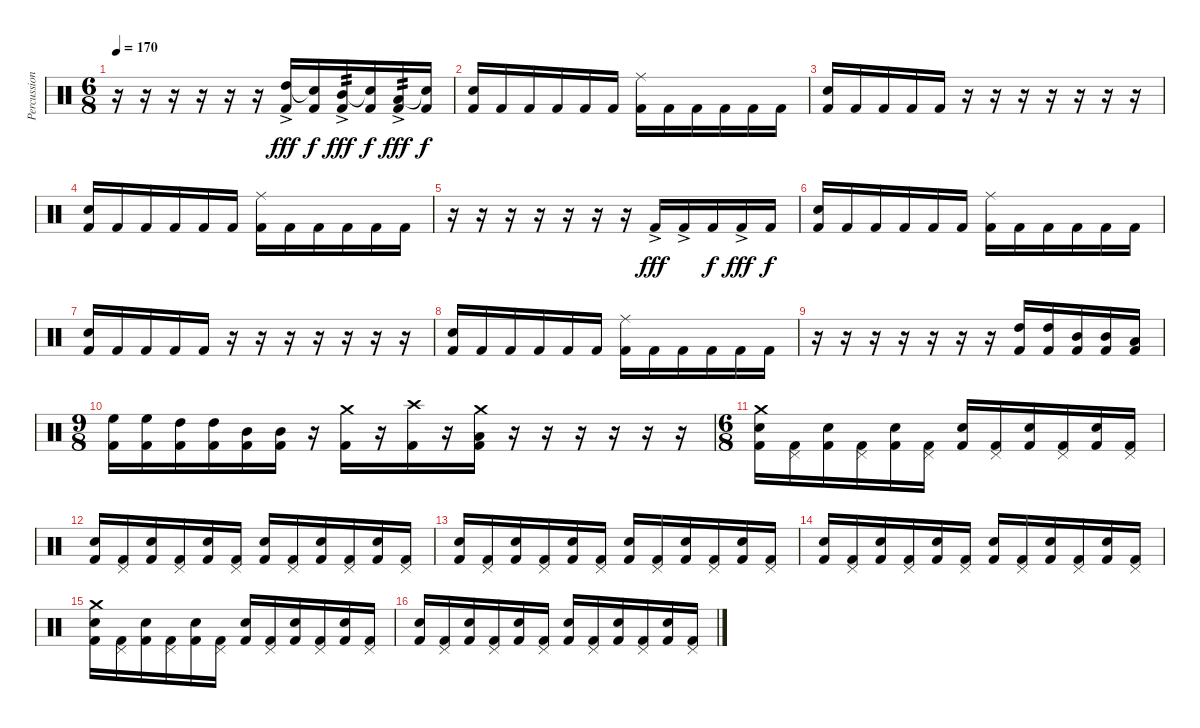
\track ("Percussions" "Percussion") {instrument percussion}
\staff {score}
\articulation defaults
\ts (6 8)
\tempo 170
\clef neutral
\ks c
r.16{dy f} r.16 r.16 r.16 r.16 r.16 ("High Tom (hit)"{ac} "Kick (hit) 2").16{dy fff} ("Snare (hit)"{t} "Kick (hit) 2").16{dy f} ("Mid Tom (hit)"{ac} "Kick (hit) 2").16{tp 2 dy fff} ("Snare (hit)"{t} "Kick (hit) 2").16{dy f} ("Low Tom (hit)"{ac} "Kick (hit) 2").16{tp 2 dy fff} ("Snare (hit)"{t} "Kick (hit) 2").16{dy f} |
("Snare (hit) 2" "Kick (hit) 2").16 "Kick (hit) 2".16 "Kick (hit) 2".16 "Kick (hit) 2".16 "Kick (hit) 2".16 "Kick (hit) 2".16 ("Ride (middle)" "Kick (hit) 2").16 "Kick (hit) 2".16 "Kick (hit) 2".16 "Kick (hit) 2".16 "Kick (hit) 2".16 "Kick (hit) 2".16 |
("Snare (hit) 2" "Kick (hit) 2").16 "Kick (hit) 2".16 "Kick (hit) 2".16 "Kick (hit) 2".16 "Kick (hit) 2".16 r.16 r.16 r.16 r.16 r.16 r.16 r.16 |
("Snare (hit) 2" "Kick (hit) 2").16 "Kick (hit) 2".16 "Kick (hit) 2".16 "Kick (hit) 2".16 "Kick (hit) 2".16 "Kick (hit) 2".16 ("Ride (middle)" "Kick (hit) 2").16 "Kick (hit) 2".16 "Kick (hit) 2".16 "Kick (hit) 2".16 "Kick (hit) 2".16 "Kick (hit) 2".16 |
r.16 r.16 r.16 r.16 r.16 r.16 r.16 "Kick (hit) 2"{ac}.16{dy fff} "Kick (hit) 2"{ac}.16 "Kick (hit) 2".16{dy f} "Kick (hit) 2"{ac}.16{dy fff} "Kick (hit) 2".16{dy f} |
("Snare (hit) 2" "Kick (hit) 2").16 "Kick (hit) 2".16 "Kick (hit) 2".16 "Kick (hit) 2".16 "Kick (hit) 2".16 "Kick (hit) 2".16 ("Ride (middle)" "Kick (hit) 2").16 "Kick (hit) 2".16 "Kick (hit) 2".16 "Kick (hit) 2".16 "Kick (hit) 2".16 "Kick (hit) 2".16 |
("Snare (hit) 2" "Kick (hit) 2").16 "Kick (hit) 2".16 "Kick (hit) 2".16 "Kick (hit) 2".16 "Kick (hit) 2".16 r.16 r.16 r.16 r.16 r.16 r.16 r.16 |
("Snare (hit) 2" "Kick (hit) 2").16 "Kick (hit) 2".16 "Kick (hit) 2".16 "Kick (hit) 2".16 "Kick (hit) 2".16 "Kick (hit) 2".16 ("Ride (middle)" "Kick (hit) 2").16 "Kick (hit) 2".16 "Kick (hit) 2".16 "Kick (hit) 2".16 "Kick (hit) 2".16 "Kick (hit) 2".16 |
r.16 r.16 r.16 r.16 r.16 r.16 r.16 ("High Tom (hit)" "Kick (hit) 2").16 ("High Tom (hit)" "Kick (hit) 2").16 ("Mid Tom (hit)" "Kick (hit) 2").16 ("Mid Tom (hit)" "Kick (hit) 2").16 ("Low Tom (hit)" "Kick (hit) 2").16 |
\ts (9 8)
("High Floor Tom (hit)" "Kick (hit) 2").16 ("High Floor Tom (hit)" "Kick (hit) 2").16 ("High Tom (hit)" "Kick (hit) 2").16 ("High Tom (hit)" "Kick (hit) 2").16 ("Mid Tom (hit)" "Kick (hit) 2").16 ("Mid Tom (hit)" "Kick (hit) 2").16 r.16 ("Crash medium (hit)" "Kick (hit) 2").16 r.16 ("Crash high (hit)" "Kick (hit) 2").16 r.16 ("Low Tom (hit)" "Crash medium (hit)" "Kick (hit) 2").16 r.16 r.16 r.16 r.16 r.16 r.16 |
\ts (6 8)
("Crash medium (hit)" "Snare (hit) 2" "Kick (hit) 2").16 ("Pedal Hi-Hat (hit)" "Kick (hit) 2").16 ("Snare (hit) 2" "Kick (hit) 2").16 ("Pedal Hi-Hat (hit)" "Kick (hit) 2").16 ("Snare (hit) 2" "Kick (hit) 2").16 ("Pedal Hi-Hat (hit)" "Kick (hit) 2").16 ("Snare (hit) 2" "Kick (hit) 2").16 ("Pedal Hi-Hat (hit)" "Kick (hit) 2").16 ("Snare (hit) 2" "Kick (hit) 2").16 ("Pedal Hi-Hat (hit)" "Kick (hit) 2").16 ("Snare (hit) 2" "Kick (hit) 2").16 ("Pedal Hi-Hat (hit)" "Kick (hit) 2").16 |
("Snare (hit) 2" "Kick (hit) 2").16 ("Pedal Hi-Hat (hit)" "Kick (hit) 2").16 ("Snare (hit) 2" "Kick (hit) 2").16 ("Pedal Hi-Hat (hit)" "Kick (hit) 2").16 ("Snare (hit) 2" "Kick (hit) 2").16 ("Pedal Hi-Hat (hit)" "Kick (hit) 2").16 ("Snare (hit) 2" "Kick (hit) 2").16 ("Pedal Hi-Hat (hit)" "Kick (hit) 2").16 ("Snare (hit) 2" "Kick (hit) 2").16 ("Pedal Hi-Hat (hit)" "Kick (hit) 2").16 ("Snare (hit) 2" "Kick (hit) 2").16 ("Pedal Hi-Hat (hit)" "Kick (hit) 2").16 |
("Snare (hit) 2" "Kick (hit) 2").16 ("Pedal Hi-Hat (hit)" "Kick (hit) 2").16 ("Snare (hit) 2" "Kick (hit) 2").16 ("Pedal Hi-Hat (hit)" "Kick (hit) 2").16 ("Snare (hit) 2" "Kick (hit) 2").16 ("Pedal Hi-Hat (hit)" "Kick (hit) 2").16 ("Snare (hit) 2" "Kick (hit) 2").16 ("Pedal Hi-Hat (hit)" "Kick (hit) 2").16 ("Snare (hit) 2" "Kick (hit) 2").16 ("Pedal Hi-Hat (hit)" "Kick (hit) 2").16 ("Snare (hit) 2" "Kick (hit) 2").16 ("Pedal Hi-Hat (hit)" "Kick (hit) 2").16 |
("Snare (hit) 2" "Kick (hit) 2").16 ("Pedal Hi-Hat (hit)" "Kick (hit) 2").16 ("Snare (hit) 2" "Kick (hit) 2").16 ("Pedal Hi-Hat (hit)" "Kick (hit) 2").16 ("Snare (hit) 2" "Kick (hit) 2").16 ("Pedal Hi-Hat (hit)" "Kick (hit) 2").16 ("Snare (hit) 2" "Kick (hit) 2").16 ("Pedal Hi-Hat (hit)" "Kick (hit) 2").16 ("Snare (hit) 2" "Kick (hit) 2").16 ("Pedal Hi-Hat (hit)" "Kick (hit) 2").16 ("Snare (hit) 2" "Kick (hit) 2").16 ("Pedal Hi-Hat (hit)" "Kick (hit) 2").16 |
("Crash medium (hit)" "Snare (hit) 2" "Kick (hit) 2").16 ("Pedal Hi-Hat (hit)" "Kick (hit) 2").16 ("Snare (hit) 2" "Kick (hit) 2").16 ("Pedal Hi-Hat (hit)" "Kick (hit) 2").16 ("Snare (hit) 2" "Kick (hit) 2").16 ("Pedal Hi-Hat (hit)" "Kick (hit) 2").16 ("Snare (hit) 2" "Kick (hit) 2").16 ("Pedal Hi-Hat (hit)" "Kick (hit) 2").16 ("Snare (hit) 2" "Kick (hit) 2").16 ("Pedal Hi-Hat (hit)" "Kick (hit) 2").16 ("Snare (hit) 2" "Kick (hit) 2").16 ("Pedal Hi-Hat (hit)" "Kick (hit) 2").16 |
("Snare (hit) 2" "Kick (hit) 2").16 ("Pedal Hi-Hat (hit)" "Kick (hit) 2").16 ("Snare (hit) 2" "Kick (hit) 2").16 ("Pedal Hi-Hat (hit)" "Kick (hit) 2").16 ("Snare (hit) 2" "Kick (hit) 2").16 ("Pedal Hi-Hat (hit)" "Kick (hit) 2").16 ("Snare (hit) 2" "Kick (hit) 2").16 ("Pedal Hi-Hat (hit)" "Kick (hit) 2").16 ("Snare (hit) 2" "Kick (hit) 2").16 ("Pedal Hi-Hat (hit)" "Kick (hit) 2").16 ("Snare (hit) 2" "Kick (hit) 2").16 ("Pedal Hi-Hat (hit)" "Kick (hit) 2").16
